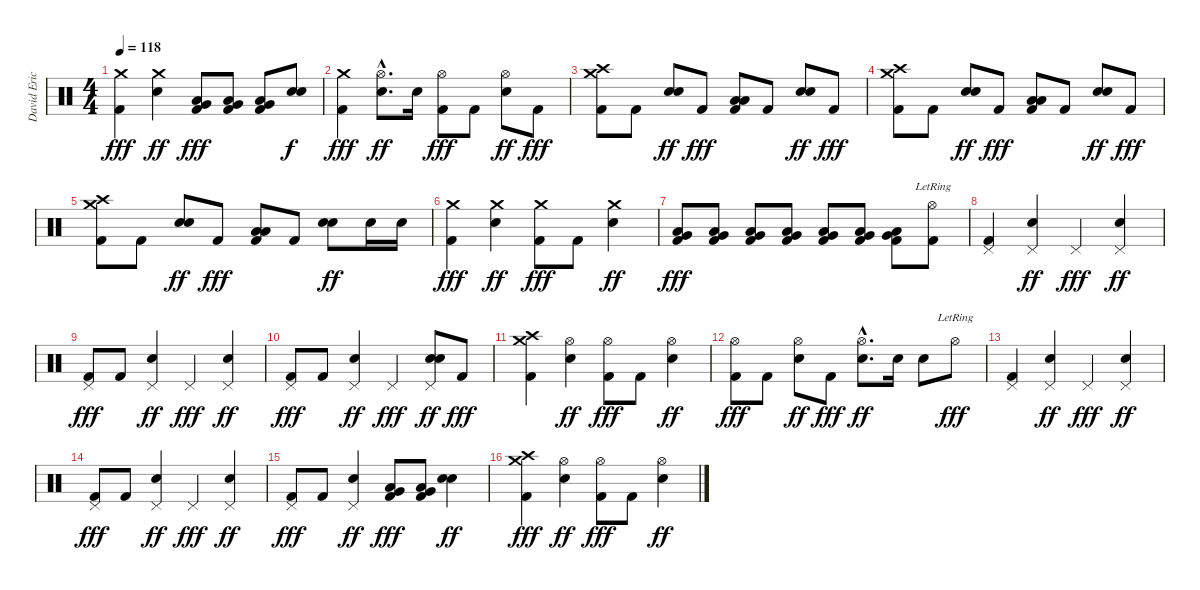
\track ("David Eric Grohl" "David Eric") {instrument percussion}
\staff {score}
\articulation defaults
\ts (4 4)
\tempo 118
\clef neutral
\ks c
("Crash medium (hit)" "Kick (hit) 2").4{dy fff} ("Crash medium (hit)" "Electric Snare (hit)").4{dy ff} ("Low Tom (hit)" "Very Low Tom (hit)" "Kick (hit) 2").8{dy fff} ("Low Tom (hit)" "Very Low Tom (hit)" "Kick (hit) 2").8 ("Low Tom (hit)" "Very Low Tom (hit)" "Kick (hit) 2").8 ("Electric Snare (hit)" "Electric Snare (hit)").8{dy f} |
("Crash medium (hit)" "Kick (hit) 2").4{dy fff} ("Hi-Hat (open)"{hac} "Electric Snare (hit)"{hac}).8{d dy ff} "Electric Snare (hit)".16 ("Hi-Hat (open)" "Kick (hit) 2").8{dy fff} "Kick (hit) 2".8 ("Hi-Hat (open)" "Electric Snare (hit)").8{dy ff} "Kick (hit) 2".8{dy fff} |
("Crash high (hit)" "Crash medium (hit)" "Kick (hit) 2").8 "Kick (hit) 2".8 ("Electric Snare (hit)" "Electric Snare (hit)").8{dy ff} "Kick (hit) 2".8{dy fff} ("Low Tom (hit)" "Low Tom (hit)" "Kick (hit) 2").8 "Kick (hit) 2".8 ("Electric Snare (hit)" "Electric Snare (hit)").8{dy ff} "Kick (hit) 2".8{dy fff} |
("Crash high (hit)" "Crash medium (hit)" "Kick (hit) 2").8 "Kick (hit) 2".8 ("Electric Snare (hit)" "Electric Snare (hit)").8{dy ff} "Kick (hit) 2".8{dy fff} ("Low Tom (hit)" "Low Tom (hit)" "Kick (hit) 2").8 "Kick (hit) 2".8 ("Electric Snare (hit)" "Electric Snare (hit)").8{dy ff} "Kick (hit) 2".8{dy fff} |
("Crash high (hit)" "Crash medium (hit)" "Kick (hit) 2").8 "Kick (hit) 2".8 ("Electric Snare (hit)" "Electric Snare (hit)").8{dy ff} "Kick (hit) 2".8{dy fff} ("Low Tom (hit)" "Low Tom (hit)" "Kick (hit) 2").8 "Kick (hit) 2".8 ("Electric Snare (hit)" "Electric Snare (hit)").8{dy ff} "Electric Snare (hit)".16 "Electric Snare (hit)".16 |
("Crash medium (hit)" "Kick (hit) 2").4{dy fff} ("Crash medium (hit)" "Electric Snare (hit)").4{dy ff} ("Crash medium (hit)" "Kick (hit) 2").8{dy fff} "Kick (hit) 2".8 ("Crash medium (hit)" "Electric Snare (hit)").4{dy ff} |
("Low Tom (hit)" "Very Low Tom (hit)" "Kick (hit) 2").8{dy fff} ("Low Tom (hit)" "Very Low Tom (hit)" "Kick (hit) 2").8 ("Low Tom (hit)" "Very Low Tom (hit)" "Kick (hit) 2").8 ("Low Tom (hit)" "Very Low Tom (hit)" "Kick (hit) 2").8 ("Low Tom (hit)" "Very Low Tom (hit)" "Kick (hit) 2").8 ("Low Tom (hit)" "Very Low Tom (hit)" "Kick (hit) 2").8 ("Low Tom (hit)" "Very Low Tom (hit)" "Kick (hit) 2").8 ("Hi-Hat (open)"{lr} "Kick (hit) 2").8 |
("Pedal Hi-Hat (hit)" "Kick (hit) 2").4 ("Pedal Hi-Hat (hit)" "Electric Snare (hit)").4{dy ff} "Pedal Hi-Hat (hit)".4{dy fff} ("Pedal Hi-Hat (hit)" "Electric Snare (hit)").4{dy ff} |
("Pedal Hi-Hat (hit)" "Kick (hit) 2").8{dy fff} "Kick (hit) 2".8 ("Pedal Hi-Hat (hit)" "Electric Snare (hit)").4{dy ff} "Pedal Hi-Hat (hit)".4{dy fff} ("Pedal Hi-Hat (hit)" "Electric Snare (hit)").4{dy ff} |
("Pedal Hi-Hat (hit)" "Kick (hit) 2").8{dy fff} "Kick (hit) 2".8 ("Pedal Hi-Hat (hit)" "Electric Snare (hit)").4{dy ff} "Pedal Hi-Hat (hit)".4{dy fff} ("Pedal Hi-Hat (hit)" "Electric Snare (hit)" "Electric Snare (hit)").8{dy ff} "Kick (hit) 2".8{dy fff} |
("Crash medium (hit)" "Crash high (hit)" "Kick (hit) 2").4 ("Hi-Hat (open)" "Electric Snare (hit)").4{dy ff} ("Hi-Hat (open)" "Kick (hit) 2").8{dy fff} "Kick (hit) 2".8 ("Hi-Hat (open)" "Electric Snare (hit)").4{dy ff} |
("Hi-Hat (open)" "Kick (hit) 2").8{dy fff} "Kick (hit) 2".8 ("Hi-Hat (open)" "Electric Snare (hit)").8{dy ff} "Kick (hit) 2".8{dy fff} ("Hi-Hat (open)"{hac} "Electric Snare (hit)"{hac}).8{d dy ff} "Electric Snare (hit)".16 "Electric Snare (hit)".8 "Hi-Hat (open)"{lr}.8{dy fff} |
("Pedal Hi-Hat (hit)" "Kick (hit) 2").4 ("Pedal Hi-Hat (hit)" "Electric Snare (hit)").4{dy ff} "Pedal Hi-Hat (hit)".4{dy fff} ("Pedal Hi-Hat (hit)" "Electric Snare (hit)").4{dy ff} |
("Pedal Hi-Hat (hit)" "Kick (hit) 2").8{dy fff} "Kick (hit) 2".8 ("Pedal Hi-Hat (hit)" "Electric Snare (hit)").4{dy ff} "Pedal Hi-Hat (hit)".4{dy fff} ("Pedal Hi-Hat (hit)" "Electric Snare (hit)").4{dy ff} |
("Pedal Hi-Hat (hit)" "Kick (hit) 2").8{dy fff} "Kick (hit) 2".8 ("Pedal Hi-Hat (hit)" "Electric Snare (hit)").4{dy ff} ("Low Tom (hit)" "Very Low Tom (hit)" "Kick (hit) 2").8{dy fff} ("Low Tom (hit)" "Very Low Tom (hit)" "Kick (hit) 2").8 ("Electric Snare (hit)" "Electric Snare (hit)").4{dy ff} |
("Crash medium (hit)" "Crash high (hit)" "Kick (hit) 2").4{dy fff} ("Hi-Hat (open)" "Electric Snare (hit)").4{dy ff} ("Hi-Hat (open)" "Kick (hit) 2").8{dy fff} "Kick (hit) 2".8 ("Hi-Hat (open)" "Electric Snare (hit)").4{dy ff}
